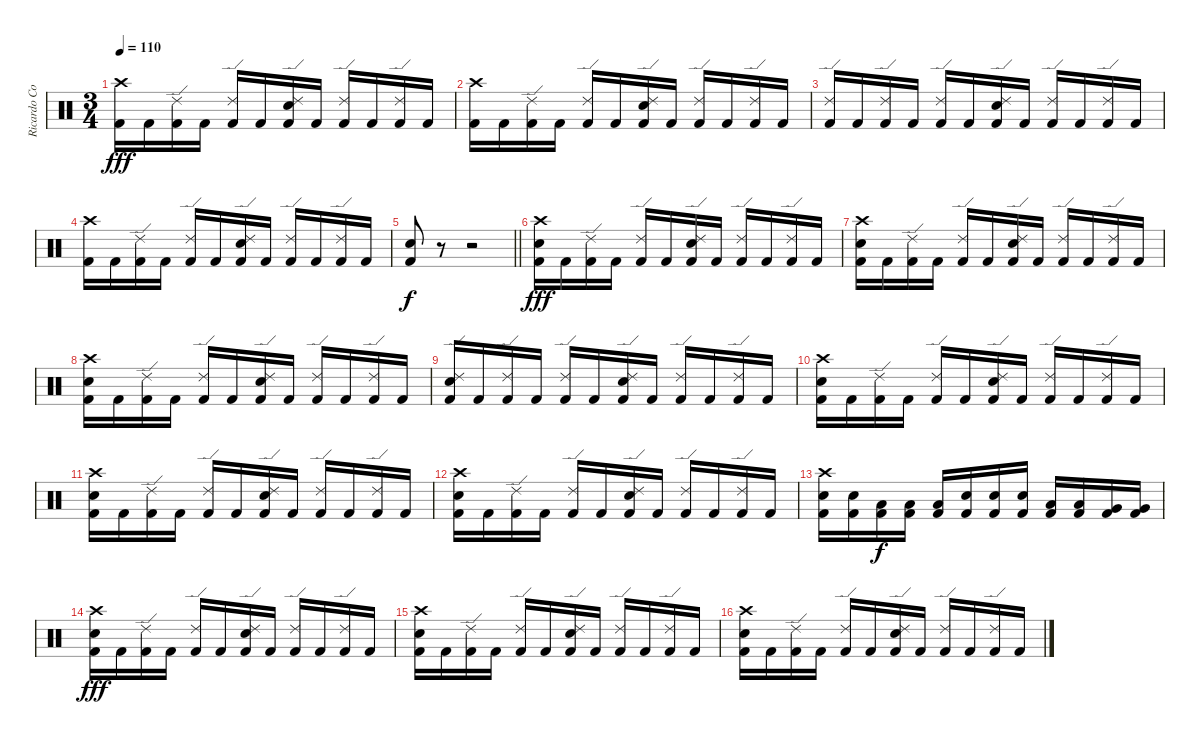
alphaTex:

\track ("Ricardo Confessori" "Ricardo Co") {instrument percussion}
\staff {score}
\articulation defaults
\ts (3 4)
\tempo 110
\clef neutral
\ks c
("Crash high (hit)" "Kick (hit) 2").16{dy fff} "Kick (hit) 2".16 ("Ride (edge) 2" "Kick (hit) 2").16 "Kick (hit) 2".16 ("Ride (edge) 2" "Kick (hit) 2").16 "Kick (hit) 2".16 ("Ride (edge) 2" "Electric Snare (hit)" "Kick (hit) 2").16 "Kick (hit) 2".16 ("Ride (edge) 2" "Kick (hit) 2").16 "Kick (hit) 2".16 ("Ride (edge) 2" "Kick (hit) 2").16 "Kick (hit) 2".16 |
("Crash high (hit)" "Kick (hit) 2").16 "Kick (hit) 2".16 ("Ride (edge) 2" "Kick (hit) 2").16 "Kick (hit) 2".16 ("Ride (edge) 2" "Kick (hit) 2").16 "Kick (hit) 2".16 ("Ride (edge) 2" "Electric Snare (hit)" "Kick (hit) 2").16 "Kick (hit) 2".16 ("Ride (edge) 2" "Kick (hit) 2").16 "Kick (hit) 2".16 ("Ride (edge) 2" "Kick (hit) 2").16 "Kick (hit) 2".16 |
("Ride (edge) 2" "Kick (hit) 2").16 "Kick (hit) 2".16 ("Ride (edge) 2" "Kick (hit) 2").16 "Kick (hit) 2".16 ("Ride (edge) 2" "Kick (hit) 2").16 "Kick (hit) 2".16 ("Ride (edge) 2" "Electric Snare (hit)" "Kick (hit) 2").16 "Kick (hit) 2".16 ("Ride (edge) 2" "Kick (hit) 2").16 "Kick (hit) 2".16 ("Ride (edge) 2" "Kick (hit) 2").16 "Kick (hit) 2".16 |
("Crash high (hit)" "Kick (hit) 2").16 "Kick (hit) 2".16 ("Ride (edge) 2" "Kick (hit) 2").16 "Kick (hit) 2".16 ("Ride (edge) 2" "Kick (hit) 2").16 "Kick (hit) 2".16 ("Ride (edge) 2" "Electric Snare (hit)" "Kick (hit) 2").16 "Kick (hit) 2".16 ("Ride (edge) 2" "Kick (hit) 2").16 "Kick (hit) 2".16 ("Ride (edge) 2" "Kick (hit) 2").16 "Kick (hit) 2".16 |
\barLineRight lightlight
("Electric Snare (hit)" "Kick (hit) 2").8{dy f} r.8 r.2 |
("Crash high (hit)" "Electric Snare (hit)" "Kick (hit) 2").16{dy fff} "Kick (hit) 2".16 ("Ride (edge) 2" "Kick (hit) 2").16 "Kick (hit) 2".16 ("Ride (edge) 2" "Kick (hit) 2").16 "Kick (hit) 2".16 ("Ride (edge) 2" "Electric Snare (hit)" "Kick (hit) 2").16 "Kick (hit) 2".16 ("Ride (edge) 2" "Kick (hit) 2").16 "Kick (hit) 2".16 ("Ride (edge) 2" "Kick (hit) 2").16 "Kick (hit) 2".16 |
("Crash high (hit)" "Electric Snare (hit)" "Kick (hit) 2").16 "Kick (hit) 2".16 ("Ride (edge) 2" "Kick (hit) 2").16 "Kick (hit) 2".16 ("Ride (edge) 2" "Kick (hit) 2").16 "Kick (hit) 2".16 ("Ride (edge) 2" "Electric Snare (hit)" "Kick (hit) 2").16 "Kick (hit) 2".16 ("Ride (edge) 2" "Kick (hit) 2").16 "Kick (hit) 2".16 ("Ride (edge) 2" "Kick (hit) 2").16 "Kick (hit) 2".16 |
("Crash high (hit)" "Electric Snare (hit)" "Kick (hit) 2").16 "Kick (hit) 2".16 ("Ride (edge) 2" "Kick (hit) 2").16 "Kick (hit) 2".16 ("Ride (edge) 2" "Kick (hit) 2").16 "Kick (hit) 2".16 ("Ride (edge) 2" "Electric Snare (hit)" "Kick (hit) 2").16 "Kick (hit) 2".16 ("Ride (edge) 2" "Kick (hit) 2").16 "Kick (hit) 2".16 ("Ride (edge) 2" "Kick (hit) 2").16 "Kick (hit) 2".16 |
("Ride (edge) 2" "Electric Snare (hit)" "Kick (hit) 2").16 "Kick (hit) 2".16 ("Ride (edge) 2" "Kick (hit) 2").16 "Kick (hit) 2".16 ("Ride (edge) 2" "Kick (hit) 2").16 "Kick (hit) 2".16 ("Ride (edge) 2" "Electric Snare (hit)" "Kick (hit) 2").16 "Kick (hit) 2".16 ("Ride (edge) 2" "Kick (hit) 2").16 "Kick (hit) 2".16 ("Ride (edge) 2" "Kick (hit) 2").16 "Kick (hit) 2".16 |
("Crash high (hit)" "Electric Snare (hit)" "Kick (hit) 2").16 "Kick (hit) 2".16 ("Ride (edge) 2" "Kick (hit) 2").16 "Kick (hit) 2".16 ("Ride (edge) 2" "Kick (hit) 2").16 "Kick (hit) 2".16 ("Ride (edge) 2" "Electric Snare (hit)" "Kick (hit) 2").16 "Kick (hit) 2".16 ("Ride (edge) 2" "Kick (hit) 2").16 "Kick (hit) 2".16 ("Ride (edge) 2" "Kick (hit) 2").16 "Kick (hit) 2".16 |
("Crash high (hit)" "Electric Snare (hit)" "Kick (hit) 2").16 "Kick (hit) 2".16 ("Ride (edge) 2" "Kick (hit) 2").16 "Kick (hit) 2".16 ("Ride (edge) 2" "Kick (hit) 2").16 "Kick (hit) 2".16 ("Ride (edge) 2" "Electric Snare (hit)" "Kick (hit) 2").16 "Kick (hit) 2".16 ("Ride (edge) 2" "Kick (hit) 2").16 "Kick (hit) 2".16 ("Ride (edge) 2" "Kick (hit) 2").16 "Kick (hit) 2".16 |
("Crash high (hit)" "Electric Snare (hit)" "Kick (hit) 2").16 "Kick (hit) 2".16 ("Ride (edge) 2" "Kick (hit) 2").16 "Kick (hit) 2".16 ("Ride (edge) 2" "Kick (hit) 2").16 "Kick (hit) 2".16 ("Ride (edge) 2" "Electric Snare (hit)" "Kick (hit) 2").16 "Kick (hit) 2".16 ("Ride (edge) 2" "Kick (hit) 2").16 "Kick (hit) 2".16 ("Ride (edge) 2" "Kick (hit) 2").16 "Kick (hit) 2".16 |
("Crash high (hit)" "Electric Snare (hit)" "Kick (hit) 2").16 ("Electric Snare (hit)" "Kick (hit) 2").16 ("Low Tom (hit)" "Kick (hit) 2").16{dy f} ("Low Tom (hit)" "Kick (hit) 2").16 ("Low Tom (hit)" "Kick (hit) 2").16 ("Electric Snare (hit)" "Kick (hit) 2").16 ("Electric Snare (hit)" "Kick (hit) 2").16 ("Electric Snare (hit)" "Kick (hit) 2").16 ("Low Tom (hit)" "Kick (hit) 2").16 ("Low Tom (hit)" "Kick (hit) 2").16 ("Very Low Tom (hit)" "Kick (hit) 2").16 ("Very Low Tom (hit)" "Kick (hit) 2").16 |
("Crash high (hit)" "Electric Snare (hit)" "Kick (hit) 2").16{dy fff} "Kick (hit) 2".16 ("Ride (edge) 2" "Kick (hit) 2").16 "Kick (hit) 2".16 ("Ride (edge) 2" "Kick (hit) 2").16 "Kick (hit) 2".16 ("Ride (edge) 2" "Electric Snare (hit)" "Kick (hit) 2").16 "Kick (hit) 2".16 ("Ride (edge) 2" "Kick (hit) 2").16 "Kick (hit) 2".16 ("Ride (edge) 2" "Kick (hit) 2").16 "Kick (hit) 2".16 |
("Crash high (hit)" "Electric Snare (hit)" "Kick (hit) 2").16 "Kick (hit) 2".16 ("Ride (edge) 2" "Kick (hit) 2").16 "Kick (hit) 2".16 ("Ride (edge) 2" "Kick (hit) 2").16 "Kick (hit) 2".16 ("Ride (edge) 2" "Electric Snare (hit)" "Kick (hit) 2").16 "Kick (hit) 2".16 ("Ride (edge) 2" "Kick (hit) 2").16 "Kick (hit) 2".16 ("Ride (edge) 2" "Kick (hit) 2").16 "Kick (hit) 2".16 |
("Crash high (hit)" "Electric Snare (hit)" "Kick (hit) 2").16 "Kick (hit) 2".16 ("Ride (edge) 2" "Kick (hit) 2").16 "Kick (hit) 2".16 ("Ride (edge) 2" "Kick (hit) 2").16 "Kick (hit) 2".16 ("Ride (edge) 2" "Electric Snare (hit)" "Kick (hit) 2").16 "Kick (hit) 2".16 ("Ride (edge) 2" "Kick (hit) 2").16 "Kick (hit) 2".16 ("Ride (edge) 2" "Kick (hit) 2").16 "Kick (hit) 2".16
